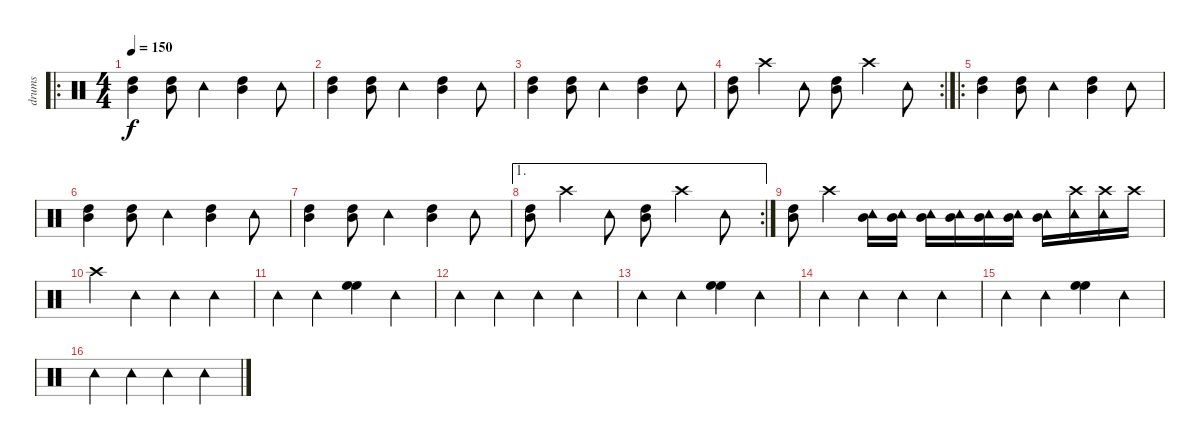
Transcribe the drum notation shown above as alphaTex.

\track ("drums" "drums") {instrument percussion}
\staff {score}
\articulation defaults
\ro
\ts (4 4)
\tempo 150
\clef neutral
\ks c
("High Tom (hit)" "Mid Tom (hit)").4{dy f} ("High Tom (hit)" "Mid Tom (hit)").8 "Tambourine (hit)".4 ("High Tom (hit)" "Mid Tom (hit)").4 "Tambourine (hit)".8 |
("High Tom (hit)" "Mid Tom (hit)").4 ("High Tom (hit)" "Mid Tom (hit)").8 "Tambourine (hit)".4 ("High Tom (hit)" "Mid Tom (hit)").4 "Tambourine (hit)".8 |
("High Tom (hit)" "Mid Tom (hit)").4 ("High Tom (hit)" "Mid Tom (hit)").8 "Tambourine (hit)".4 ("High Tom (hit)" "Mid Tom (hit)").4 "Tambourine (hit)".8 |
\rc 2
("High Tom (hit)" "Mid Tom (hit)").8 "Crash high (hit)".4 "Tambourine (hit)".8 ("High Tom (hit)" "Mid Tom (hit)").8 "Crash high (hit)".4 "Tambourine (hit)".8 |
\ro
("High Tom (hit)" "Mid Tom (hit)").4 ("High Tom (hit)" "Mid Tom (hit)").8 "Tambourine (hit)".4 ("High Tom (hit)" "Mid Tom (hit)").4 "Tambourine (hit)".8 |
("High Tom (hit)" "Mid Tom (hit)").4 ("High Tom (hit)" "Mid Tom (hit)").8 "Tambourine (hit)".4 ("High Tom (hit)" "Mid Tom (hit)").4 "Tambourine (hit)".8 |
("High Tom (hit)" "Mid Tom (hit)").4 ("High Tom (hit)" "Mid Tom (hit)").8 "Tambourine (hit)".4 ("High Tom (hit)" "Mid Tom (hit)").4 "Tambourine (hit)".8 |
\ae 1
\rc 2
("High Tom (hit)" "Mid Tom (hit)").8 "Crash high (hit)".4 "Tambourine (hit)".8 ("High Tom (hit)" "Mid Tom (hit)").8 "Crash high (hit)".4 "Tambourine (hit)".8 |
("High Tom (hit)" "Mid Tom (hit)").8 "Crash high (hit)".4 ("Mid Tom (hit)" "Tambourine (hit)").16 ("Mid Tom (hit)" "Tambourine (hit)").16 ("Mid Tom (hit)" "Tambourine (hit)").16 ("Mid Tom (hit)" "Tambourine (hit)").16 ("Mid Tom (hit)" "Tambourine (hit)").16 ("Mid Tom (hit)" "Tambourine (hit)").16 ("Mid Tom (hit)" "Tambourine (hit)").16 ("Crash high (hit)" "Tambourine (hit)").16 ("Crash high (hit)" "Tambourine (hit)").16 "Crash high (hit)".16 |
"Crash high (hit)".4 "Tambourine (hit)".4 "Tambourine (hit)".4 "Tambourine (hit)".4 |
"Tambourine (hit)".4 "Tambourine (hit)".4 ("High Floor Tom (hit)" "High Floor Tom (hit)").4 "Tambourine (hit)".4 |
"Tambourine (hit)".4 "Tambourine (hit)".4 "Tambourine (hit)".4 "Tambourine (hit)".4 |
"Tambourine (hit)".4 "Tambourine (hit)".4 ("High Floor Tom (hit)" "High Floor Tom (hit)").4 "Tambourine (hit)".4 |
"Tambourine (hit)".4 "Tambourine (hit)".4 "Tambourine (hit)".4 "Tambourine (hit)".4 |
"Tambourine (hit)".4 "Tambourine (hit)".4 ("High Floor Tom (hit)" "High Floor Tom (hit)").4 "Tambourine (hit)".4 |
"Tambourine (hit)".4 "Tambourine (hit)".4 "Tambourine (hit)".4 "Tambourine (hit)".4
